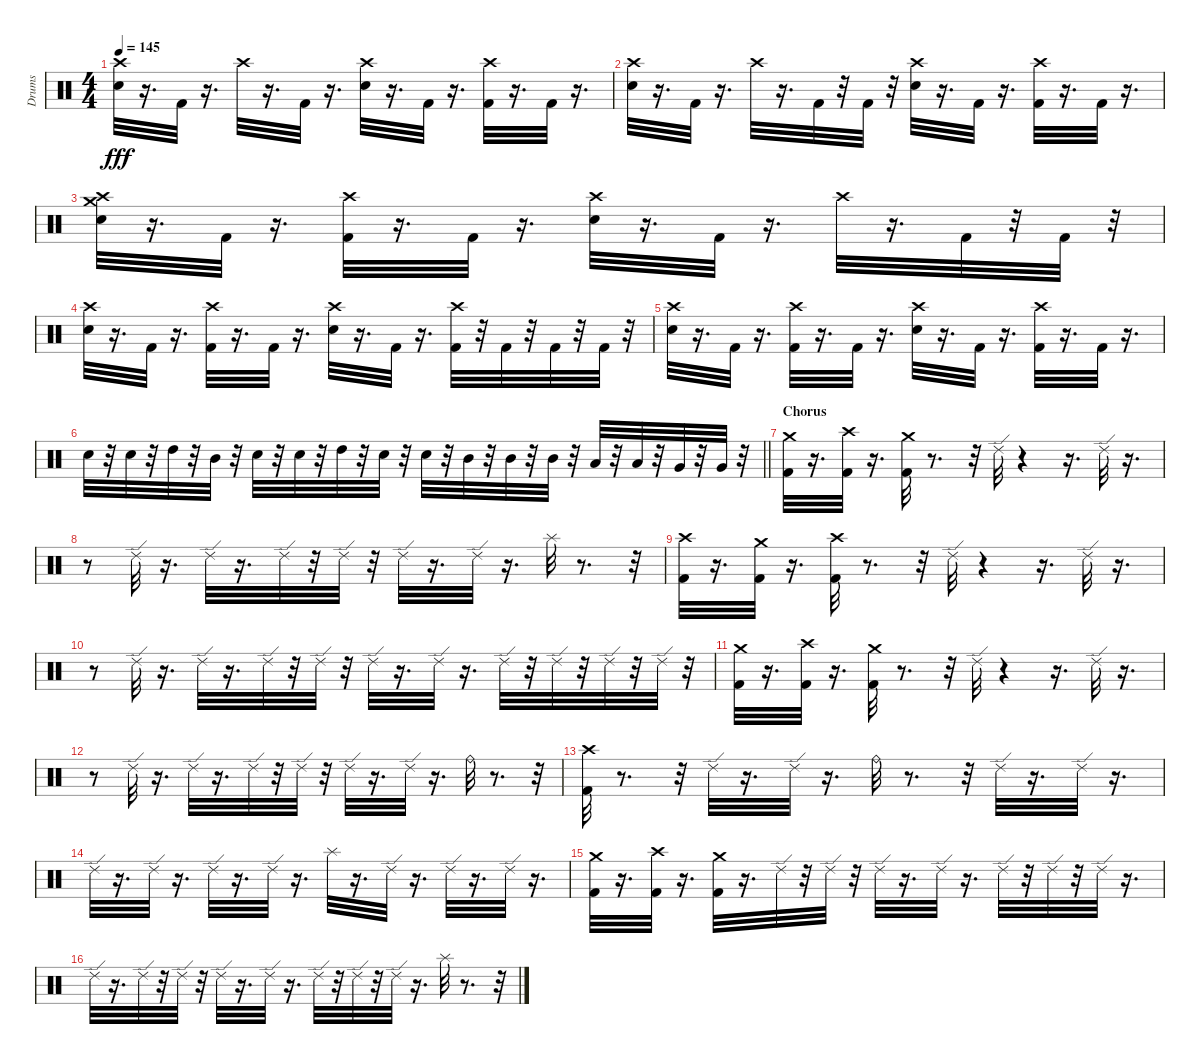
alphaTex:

\track ("Drums" "Drums") {instrument percussion}
\staff {score}
\articulation defaults
\ts (4 4)
\tempo 145
\clef neutral
\ks c
("Snare (hit) 2" "Crash high (hit)").32{dy fff} r.16{d} "Kick (hit) 2".32 r.16{d} "Crash high (hit)".32 r.16{d} "Kick (hit) 2".32 r.16{d} ("Snare (hit) 2" "Crash high (hit)").32 r.16{d} "Kick (hit) 2".32 r.16{d} ("Kick (hit) 2" "Crash high (hit)").32 r.16{d} "Kick (hit) 2".32 r.16{d} |
("Snare (hit) 2" "Crash high (hit)").32 r.16{d} "Kick (hit) 2".32 r.16{d} "Crash high (hit)".32 r.16{d} "Kick (hit) 2".32 r.32 "Kick (hit) 2".32 r.32 ("Snare (hit) 2" "Crash high (hit)").32 r.16{d} "Kick (hit) 2".32 r.16{d} ("Kick (hit) 2" "Crash high (hit)").32 r.16{d} "Kick (hit) 2".32 r.16{d} |
("Snare (hit) 2" "Crash medium (hit)" "Crash high (hit)").32 r.16{d} "Kick (hit) 2".32 r.16{d} ("Kick (hit) 2" "Crash high (hit)").32 r.16{d} "Kick (hit) 2".32 r.16{d} ("Snare (hit) 2" "Crash high (hit)").32 r.16{d} "Kick (hit) 2".32 r.16{d} "Crash high (hit)".32 r.16{d} "Kick (hit) 2".32 r.32 "Kick (hit) 2".32 r.32 |
("Snare (hit) 2" "Crash high (hit)").32 r.16{d} "Kick (hit) 2".32 r.16{d} ("Kick (hit) 2" "Crash high (hit)").32 r.16{d} "Kick (hit) 2".32 r.16{d} ("Snare (hit) 2" "Crash high (hit)").32 r.16{d} "Kick (hit) 2".32 r.16{d} ("Kick (hit) 2" "Crash high (hit)").32 r.32 "Kick (hit) 2".32 r.32 "Kick (hit) 2".32 r.32 "Kick (hit) 2".32 r.32 |
("Snare (hit) 2" "Crash high (hit)").32 r.16{d} "Kick (hit) 2".32 r.16{d} ("Kick (hit) 2" "Crash high (hit)").32 r.16{d} "Kick (hit) 2".32 r.16{d} ("Snare (hit) 2" "Crash high (hit)").32 r.16{d} "Kick (hit) 2".32 r.16{d} ("Kick (hit) 2" "Crash high (hit)").32 r.16{d} "Kick (hit) 2".32 r.16{d} |
\barLineRight lightlight "Snare (hit) 2".32
r.32 "Snare (hit) 2".32 r.32 "High Tom (hit)".32 r.32 "Mid Tom (hit)".32 r.32 "Snare (hit) 2".32 r.32 "Snare (hit) 2".32 r.32 "High Tom (hit)".32 r.32 "Snare (hit) 2".32 r.32 "Snare (hit) 2".32 r.32 "Mid Tom (hit)".32 r.32 "Mid Tom (hit)".32 r.32 "Mid Tom (hit)".32 r.32 "Low Tom (hit)".32 r.32 "Low Tom (hit)".32 r.32 "Very Low Tom (hit)".32 r.32 "Very Low Tom (hit)".32 r.32 |
\section ("" "Chorus")
("Crash medium (hit)" "Kick (hit) 2").32 r.16{d} ("Crash high (hit)" "Kick (hit) 2").32 r.16{d} ("Crash medium (hit)" "Kick (hit) 2").32 r.8{d} r.32 "Ride (edge) 2".32 r.4 r.16{d} "Ride (edge) 2".32 r.16{d} |
r.8 "Ride (edge) 2".32 r.16{d} "Ride (edge) 2".32 r.16{d} "Ride (edge) 2".32 r.32 "Ride (edge) 2".32 r.32 "Ride (edge) 2".32 r.16{d} "Ride (edge) 2".32 r.16{d} "Splash (hit)".32 r.8{d} r.32 |
("Crash high (hit)" "Kick (hit) 2").32 r.16{d} ("Crash medium (hit)" "Kick (hit) 2").32 r.16{d} ("Crash high (hit)" "Kick (hit) 2").32 r.8{d} r.32 "Ride (edge) 2".32 r.4 r.16{d} "Ride (edge) 2".32 r.16{d} |
r.8 "Ride (edge) 2".32 r.16{d} "Ride (edge) 2".32 r.16{d} "Ride (edge) 2".32 r.32 "Ride (edge) 2".32 r.32 "Ride (edge) 2".32 r.16{d} "Ride (edge) 2".32 r.16{d} "Ride (edge) 2".32 r.32 "Ride (edge) 2".32 r.32 "Ride (edge) 2".32 r.32 "Ride (edge) 2".32 r.32 |
("Crash medium (hit)" "Kick (hit) 2").32 r.16{d} ("Crash high (hit)" "Kick (hit) 2").32 r.16{d} ("Crash medium (hit)" "Kick (hit) 2").32 r.8{d} r.32 "Ride (edge) 2".32 r.4 r.16{d} "Ride (edge) 2".32 r.16{d} |
r.8 "Ride (edge) 2".32 r.16{d} "Ride (edge) 2".32 r.16{d} "Ride (edge) 2".32 r.32 "Ride (edge) 2".32 r.32 "Ride (edge) 2".32 r.16{d} "Ride (edge) 2".32 r.16{d} "Ride (bell)".32 r.8{d} r.32 |
("Crash high (hit)" "Kick (hit) 2").32 r.8{d} r.32 "Ride (edge) 2".32 r.16{d} "Ride (edge) 2".32 r.16{d} "Ride (bell)".32 r.8{d} r.32 "Ride (edge) 2".32 r.16{d} "Ride (edge) 2".32 r.16{d} |
"Ride (edge) 2".32 r.16{d} "Ride (edge) 2".32 r.16{d} "Ride (edge) 2".32 r.16{d} "Ride (edge) 2".32 r.16{d} "Splash (hit)".32 r.16{d} "Ride (edge) 2".32 r.16{d} "Ride (edge) 2".32 r.16{d} "Ride (edge) 2".32 r.16{d} |
("Crash medium (hit)" "Kick (hit) 2").32 r.16{d} ("Crash high (hit)" "Kick (hit) 2").32 r.16{d} ("Crash medium (hit)" "Kick (hit) 2").32 r.16{d} "Ride (edge) 2".32 r.32 "Ride (edge) 2".32 r.32 "Ride (edge) 2".32 r.16{d} "Ride (edge) 2".32 r.16{d} "Ride (edge) 2".32 r.32 "Ride (edge) 2".32 r.32 "Ride (edge) 2".32 r.16{d} |
"Ride (edge) 2".32 r.16{d} "Ride (edge) 2".32 r.32 "Ride (edge) 2".32 r.32 "Ride (edge) 2".32 r.16{d} "Ride (edge) 2".32 r.16{d} "Ride (edge) 2".32 r.32 "Ride (edge) 2".32 r.32 "Ride (edge) 2".32 r.16{d} "Splash (hit)".32 r.8{d} r.32
